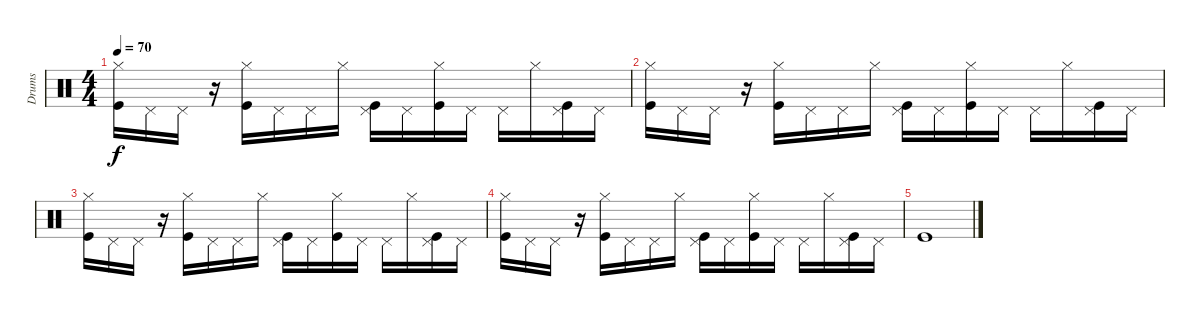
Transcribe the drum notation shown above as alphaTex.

\track ("Drums" "Drums") {instrument percussion}
\staff {score}
\articulation defaults
\ts (4 4)
\tempo 70
\clef neutral
\ks c
("Hi-Hat (closed)" "Kick (hit)").16{dy f} "Pedal Hi-Hat (hit)".16 "Pedal Hi-Hat (hit)".16 r.16 ("Hi-Hat (closed)" "Kick (hit)").16 "Pedal Hi-Hat (hit)".16 "Pedal Hi-Hat (hit)".16 "Hi-Hat (closed)".16 ("Pedal Hi-Hat (hit)" "Kick (hit)").16 "Pedal Hi-Hat (hit)".16 ("Hi-Hat (closed)" "Kick (hit)").16 "Pedal Hi-Hat (hit)".16 "Pedal Hi-Hat (hit)".16 "Hi-Hat (closed)".16 ("Pedal Hi-Hat (hit)" "Kick (hit)").16 "Pedal Hi-Hat (hit)".16 |
("Hi-Hat (closed)" "Kick (hit)").16 "Pedal Hi-Hat (hit)".16 "Pedal Hi-Hat (hit)".16 r.16 ("Hi-Hat (closed)" "Kick (hit)").16 "Pedal Hi-Hat (hit)".16 "Pedal Hi-Hat (hit)".16 "Hi-Hat (closed)".16 ("Pedal Hi-Hat (hit)" "Kick (hit)").16 "Pedal Hi-Hat (hit)".16 ("Hi-Hat (closed)" "Kick (hit)").16 "Pedal Hi-Hat (hit)".16 "Pedal Hi-Hat (hit)".16 "Hi-Hat (closed)".16 ("Pedal Hi-Hat (hit)" "Kick (hit)").16 "Pedal Hi-Hat (hit)".16 |
("Hi-Hat (closed)" "Kick (hit)").16 "Pedal Hi-Hat (hit)".16 "Pedal Hi-Hat (hit)".16 r.16 ("Hi-Hat (closed)" "Kick (hit)").16 "Pedal Hi-Hat (hit)".16 "Pedal Hi-Hat (hit)".16 "Hi-Hat (closed)".16 ("Pedal Hi-Hat (hit)" "Kick (hit)").16 "Pedal Hi-Hat (hit)".16 ("Hi-Hat (closed)" "Kick (hit)").16 "Pedal Hi-Hat (hit)".16 "Pedal Hi-Hat (hit)".16 "Hi-Hat (closed)".16 ("Pedal Hi-Hat (hit)" "Kick (hit)").16 "Pedal Hi-Hat (hit)".16 |
("Hi-Hat (closed)" "Kick (hit)").16 "Pedal Hi-Hat (hit)".16 "Pedal Hi-Hat (hit)".16 r.16 ("Hi-Hat (closed)" "Kick (hit)").16 "Pedal Hi-Hat (hit)".16 "Pedal Hi-Hat (hit)".16 "Hi-Hat (closed)".16 ("Pedal Hi-Hat (hit)" "Kick (hit)").16 "Pedal Hi-Hat (hit)".16 ("Hi-Hat (closed)" "Kick (hit)").16 "Pedal Hi-Hat (hit)".16 "Pedal Hi-Hat (hit)".16 "Hi-Hat (closed)".16 ("Pedal Hi-Hat (hit)" "Kick (hit)").16 "Pedal Hi-Hat (hit)".16 |
"Kick (hit)".1
